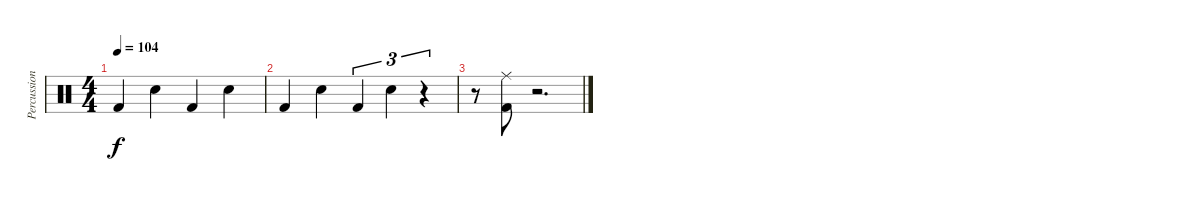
\track ("Percussion" "Percussion") {instrument percussion}
\staff {score}
\articulation defaults
\ts (4 4)
\tempo 104
\clef neutral
\ks c "Kick (hit) 2".4{dy f} "Snare (hit) 2".4 "Kick (hit) 2".4 "Snare (hit) 2".4
|
"Kick (hit) 2".4 "Snare (hit) 2".4 "Kick (hit) 2".4{tu (3 2)} "Snare (hit) 2".4{tu (3 2)} r.4{tu (3 2)} |
r.8 ("Ride (middle)" "Kick (hit) 2").8 r.2{d}
